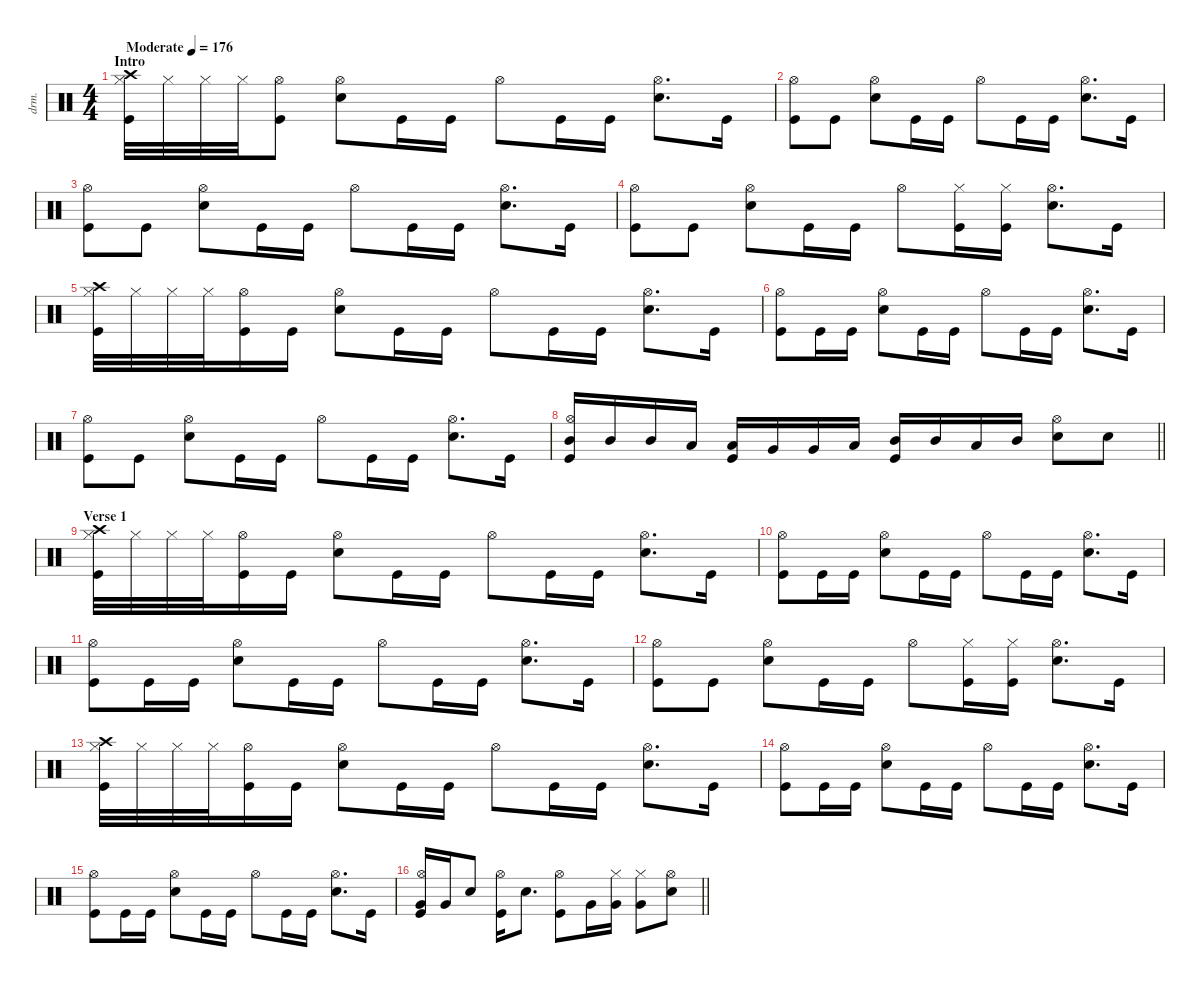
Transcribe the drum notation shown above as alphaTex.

\defaultSystemsLayout 4
\hideDynamics
\bracketExtendMode nobrackets
\track ("Gene Hoglan " "drm.") {instrument percussion}
\staff {score}
\articulation defaults
\ts (4 4)
\beaming (8 2 2 2 2)
\section ("" "Intro")
\tempo (176 "Moderate")
\clef neutral
\ks c
("Hi-Hat (closed)" "Crash high (hit)" "Kick (hit)").32{dy f} "Hi-Hat (closed)".32 "Hi-Hat (closed)".32 "Hi-Hat (closed)".32 ("Hi-Hat (open)" "Kick (hit)").8 ("Hi-Hat (open)" "Snare (hit) 2").8 "Kick (hit)".16 "Kick (hit)".16 "Hi-Hat (open)".8 "Kick (hit)".16 "Kick (hit)".16 ("Hi-Hat (open)" "Snare (hit) 2").8{d} "Kick (hit)".16 |
("Hi-Hat (open)" "Kick (hit)").8 "Kick (hit)".8 ("Hi-Hat (open)" "Snare (hit) 2").8 "Kick (hit)".16 "Kick (hit)".16 "Hi-Hat (open)".8 "Kick (hit)".16 "Kick (hit)".16 ("Hi-Hat (open)" "Snare (hit) 2").8{d} "Kick (hit)".16 |
("Hi-Hat (open)" "Kick (hit)").8 "Kick (hit)".8 ("Hi-Hat (open)" "Snare (hit) 2").8 "Kick (hit)".16 "Kick (hit)".16 "Hi-Hat (open)".8 "Kick (hit)".16 "Kick (hit)".16 ("Hi-Hat (open)" "Snare (hit) 2").8{d} "Kick (hit)".16 |
("Hi-Hat (open)" "Kick (hit)").8 "Kick (hit)".8 ("Hi-Hat (open)" "Snare (hit) 2").8 "Kick (hit)".16 "Kick (hit)".16 "Hi-Hat (open)".8 ("Hi-Hat (closed)" "Kick (hit)").16 ("Hi-Hat (closed)" "Kick (hit)").16 ("Hi-Hat (open)" "Snare (hit) 2").8{d} "Kick (hit)".16 |
("Hi-Hat (closed)" "Crash high (hit)" "Kick (hit)").32 "Hi-Hat (closed)".32 "Hi-Hat (closed)".32 "Hi-Hat (closed)".32 ("Hi-Hat (open)" "Kick (hit)").16 "Kick (hit)".16 ("Hi-Hat (open)" "Snare (hit) 2").8 "Kick (hit)".16 "Kick (hit)".16 "Hi-Hat (open)".8 "Kick (hit)".16 "Kick (hit)".16 ("Hi-Hat (open)" "Snare (hit) 2").8{d} "Kick (hit)".16 |
("Hi-Hat (open)" "Kick (hit)").8 "Kick (hit)".16 "Kick (hit)".16 ("Hi-Hat (open)" "Snare (hit) 2").8 "Kick (hit)".16 "Kick (hit)".16 "Hi-Hat (open)".8 "Kick (hit)".16 "Kick (hit)".16 ("Hi-Hat (open)" "Snare (hit) 2").8{d} "Kick (hit)".16 |
("Hi-Hat (open)" "Kick (hit)").8 "Kick (hit)".8 ("Hi-Hat (open)" "Snare (hit) 2").8 "Kick (hit)".16 "Kick (hit)".16 "Hi-Hat (open)".8 "Kick (hit)".16 "Kick (hit)".16 ("Hi-Hat (open)" "Snare (hit) 2").8{d} "Kick (hit)".16 |
\barLineRight lightlight
("Hi-Hat (open)" "Mid Tom (hit)" "Kick (hit)").16 "Mid Tom (hit)".16 "Mid Tom (hit)".16 "Low Tom (hit)".16 ("Low Tom (hit)" "Kick (hit)").16 "Very Low Tom (hit)".16 "Very Low Tom (hit)".16 "Low Tom (hit)".16 ("Mid Tom (hit)" "Kick (hit)").16 "Mid Tom (hit)".16 "Low Tom (hit)".16 "Mid Tom (hit)".16 ("Hi-Hat (open)" "Snare (hit) 2").8 "Snare (hit) 2".8 |
\section ("" "Verse 1")
("Hi-Hat (closed)" "Crash high (hit)" "Kick (hit)").32 "Hi-Hat (closed)".32 "Hi-Hat (closed)".32 "Hi-Hat (closed)".32 ("Hi-Hat (open)" "Kick (hit)").16 "Kick (hit)".16 ("Hi-Hat (open)" "Snare (hit) 2").8 "Kick (hit)".16 "Kick (hit)".16 "Hi-Hat (open)".8 "Kick (hit)".16 "Kick (hit)".16 ("Hi-Hat (open)" "Snare (hit) 2").8{d} "Kick (hit)".16 |
("Hi-Hat (open)" "Kick (hit)").8 "Kick (hit)".16 "Kick (hit)".16 ("Hi-Hat (open)" "Snare (hit) 2").8 "Kick (hit)".16 "Kick (hit)".16 "Hi-Hat (open)".8 "Kick (hit)".16 "Kick (hit)".16 ("Hi-Hat (open)" "Snare (hit) 2").8{d} "Kick (hit)".16 |
("Hi-Hat (open)" "Kick (hit)").8 "Kick (hit)".16 "Kick (hit)".16 ("Hi-Hat (open)" "Snare (hit) 2").8 "Kick (hit)".16 "Kick (hit)".16 "Hi-Hat (open)".8 "Kick (hit)".16 "Kick (hit)".16 ("Hi-Hat (open)" "Snare (hit) 2").8{d} "Kick (hit)".16 |
("Hi-Hat (open)" "Kick (hit)").8 "Kick (hit)".8 ("Hi-Hat (open)" "Snare (hit) 2").8 "Kick (hit)".16 "Kick (hit)".16 "Hi-Hat (open)".8 ("Hi-Hat (closed)" "Kick (hit)").16 ("Hi-Hat (closed)" "Kick (hit)").16 ("Hi-Hat (open)" "Snare (hit) 2").8{d} "Kick (hit)".16 |
("Hi-Hat (closed)" "Crash high (hit)" "Kick (hit)").32 "Hi-Hat (closed)".32 "Hi-Hat (closed)".32 "Hi-Hat (closed)".32 ("Hi-Hat (open)" "Kick (hit)").16 "Kick (hit)".16 ("Hi-Hat (open)" "Snare (hit) 2").8 "Kick (hit)".16 "Kick (hit)".16 "Hi-Hat (open)".8 "Kick (hit)".16 "Kick (hit)".16 ("Hi-Hat (open)" "Snare (hit) 2").8{d} "Kick (hit)".16 |
("Hi-Hat (open)" "Kick (hit)").8 "Kick (hit)".16 "Kick (hit)".16 ("Hi-Hat (open)" "Snare (hit) 2").8 "Kick (hit)".16 "Kick (hit)".16 "Hi-Hat (open)".8 "Kick (hit)".16 "Kick (hit)".16 ("Hi-Hat (open)" "Snare (hit) 2").8{d} "Kick (hit)".16 |
("Hi-Hat (open)" "Kick (hit)").8 "Kick (hit)".16 "Kick (hit)".16 ("Hi-Hat (open)" "Snare (hit) 2").8 "Kick (hit)".16 "Kick (hit)".16 "Hi-Hat (open)".8 "Kick (hit)".16 "Kick (hit)".16 ("Hi-Hat (open)" "Snare (hit) 2").8{d} "Kick (hit)".16 |
\barLineRight lightlight
("Hi-Hat (open)" "Very Low Tom (hit)" "Kick (hit)").16 "Very Low Tom (hit)".16 "Snare (hit) 2".8 ("Hi-Hat (open)" "Kick (hit)").16 "Snare (hit) 2".8{d} ("Hi-Hat (open)" "Kick (hit)").8 "Very Low Tom (hit)".16 ("Hi-Hat (closed)" "Very Low Tom (hit)").16 ("Hi-Hat (closed)" "Very Low Tom (hit)").8 ("Hi-Hat (open)" "Snare (hit) 2").8
